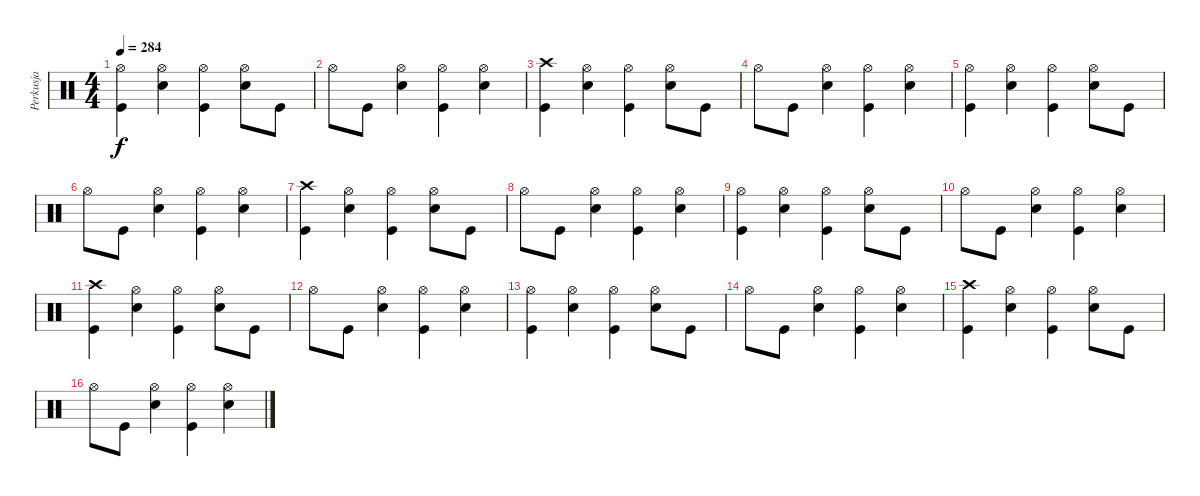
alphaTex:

\track ("Perkusja" "Perkusja") {instrument percussion}
\staff {score}
\articulation defaults
\ts (4 4)
\tempo 284
\clef neutral
\ks c
("Hi-Hat (open)" "Kick (hit)").4{dy f} ("Hi-Hat (open)" "Snare (hit) 2").4 ("Hi-Hat (open)" "Kick (hit)").4 ("Hi-Hat (open)" "Snare (hit) 2").8 "Kick (hit)".8 |
"Hi-Hat (open)".8 "Kick (hit)".8 ("Hi-Hat (open)" "Snare (hit) 2").4 ("Hi-Hat (open)" "Kick (hit)").4 ("Hi-Hat (open)" "Snare (hit) 2").4 |
("Kick (hit)" "Crash high (hit)").4 ("Hi-Hat (open)" "Snare (hit) 2").4 ("Hi-Hat (open)" "Kick (hit)").4 ("Hi-Hat (open)" "Snare (hit) 2").8 "Kick (hit)".8 |
"Hi-Hat (open)".8 "Kick (hit)".8 ("Hi-Hat (open)" "Snare (hit) 2").4 ("Hi-Hat (open)" "Kick (hit)").4 ("Hi-Hat (open)" "Snare (hit) 2").4 |
("Hi-Hat (open)" "Kick (hit)").4 ("Hi-Hat (open)" "Snare (hit) 2").4 ("Hi-Hat (open)" "Kick (hit)").4 ("Hi-Hat (open)" "Snare (hit) 2").8 "Kick (hit)".8 |
"Hi-Hat (open)".8 "Kick (hit)".8 ("Hi-Hat (open)" "Snare (hit) 2").4 ("Hi-Hat (open)" "Kick (hit)").4 ("Hi-Hat (open)" "Snare (hit) 2").4 |
("Kick (hit)" "Crash high (hit)").4 ("Hi-Hat (open)" "Snare (hit) 2").4 ("Hi-Hat (open)" "Kick (hit)").4 ("Hi-Hat (open)" "Snare (hit) 2").8 "Kick (hit)".8 |
"Hi-Hat (open)".8 "Kick (hit)".8 ("Hi-Hat (open)" "Snare (hit) 2").4 ("Hi-Hat (open)" "Kick (hit)").4 ("Hi-Hat (open)" "Snare (hit) 2").4 |
("Hi-Hat (open)" "Kick (hit)").4 ("Hi-Hat (open)" "Snare (hit) 2").4 ("Hi-Hat (open)" "Kick (hit)").4 ("Hi-Hat (open)" "Snare (hit) 2").8 "Kick (hit)".8 |
"Hi-Hat (open)".8 "Kick (hit)".8 ("Hi-Hat (open)" "Snare (hit) 2").4 ("Hi-Hat (open)" "Kick (hit)").4 ("Hi-Hat (open)" "Snare (hit) 2").4 |
("Kick (hit)" "Crash high (hit)").4 ("Hi-Hat (open)" "Snare (hit) 2").4 ("Hi-Hat (open)" "Kick (hit)").4 ("Hi-Hat (open)" "Snare (hit) 2").8 "Kick (hit)".8 |
"Hi-Hat (open)".8 "Kick (hit)".8 ("Hi-Hat (open)" "Snare (hit) 2").4 ("Hi-Hat (open)" "Kick (hit)").4 ("Hi-Hat (open)" "Snare (hit) 2").4 |
("Hi-Hat (open)" "Kick (hit)").4 ("Hi-Hat (open)" "Snare (hit) 2").4 ("Hi-Hat (open)" "Kick (hit)").4 ("Hi-Hat (open)" "Snare (hit) 2").8 "Kick (hit)".8 |
"Hi-Hat (open)".8 "Kick (hit)".8 ("Hi-Hat (open)" "Snare (hit) 2").4 ("Hi-Hat (open)" "Kick (hit)").4 ("Hi-Hat (open)" "Snare (hit) 2").4 |
("Kick (hit)" "Crash high (hit)").4 ("Hi-Hat (open)" "Snare (hit) 2").4 ("Hi-Hat (open)" "Kick (hit)").4 ("Hi-Hat (open)" "Snare (hit) 2").8 "Kick (hit)".8 |
"Hi-Hat (open)".8 "Kick (hit)".8 ("Hi-Hat (open)" "Snare (hit) 2").4 ("Hi-Hat (open)" "Kick (hit)").4 ("Hi-Hat (open)" "Snare (hit) 2").4
